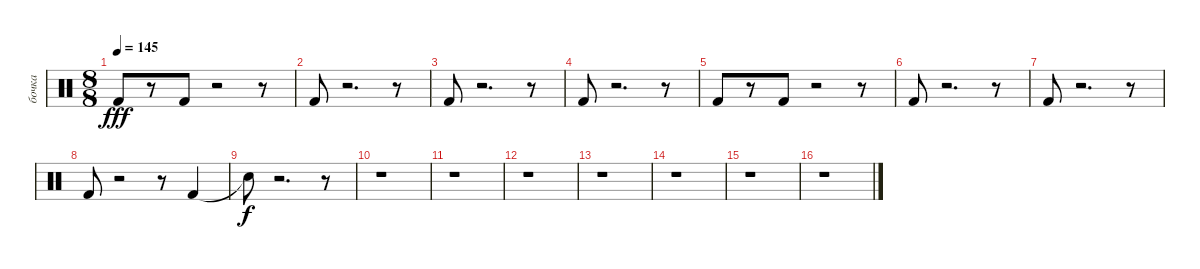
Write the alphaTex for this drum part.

\track ("бочка" "бочка") {instrument percussion}
\staff {score}
\articulation defaults
\ts (8 8)
\tempo 145
\clef neutral
\ks c "Kick (hit) 2".8{dy fff}
r.8 "Kick (hit) 2".8 r.2 r.8 |
"Kick (hit) 2".8 r.2{d} r.8 |
"Kick (hit) 2".8 r.2{d} r.8 |
"Kick (hit) 2".8 r.2{d} r.8 |
"Kick (hit) 2".8 r.8 "Kick (hit) 2".8 r.2 r.8 |
"Kick (hit) 2".8 r.2{d} r.8 |
"Kick (hit) 2".8 r.2{d} r.8 |
"Kick (hit) 2".8 r.2 r.8 "Kick (hit) 2".4 |
"Snare (hit)"{t}.8{dy f} r.2{d} r.8 |
r.1 |
r.1 |
r.1 |
r.1 |
r.1 |
r.1 |
r.1
